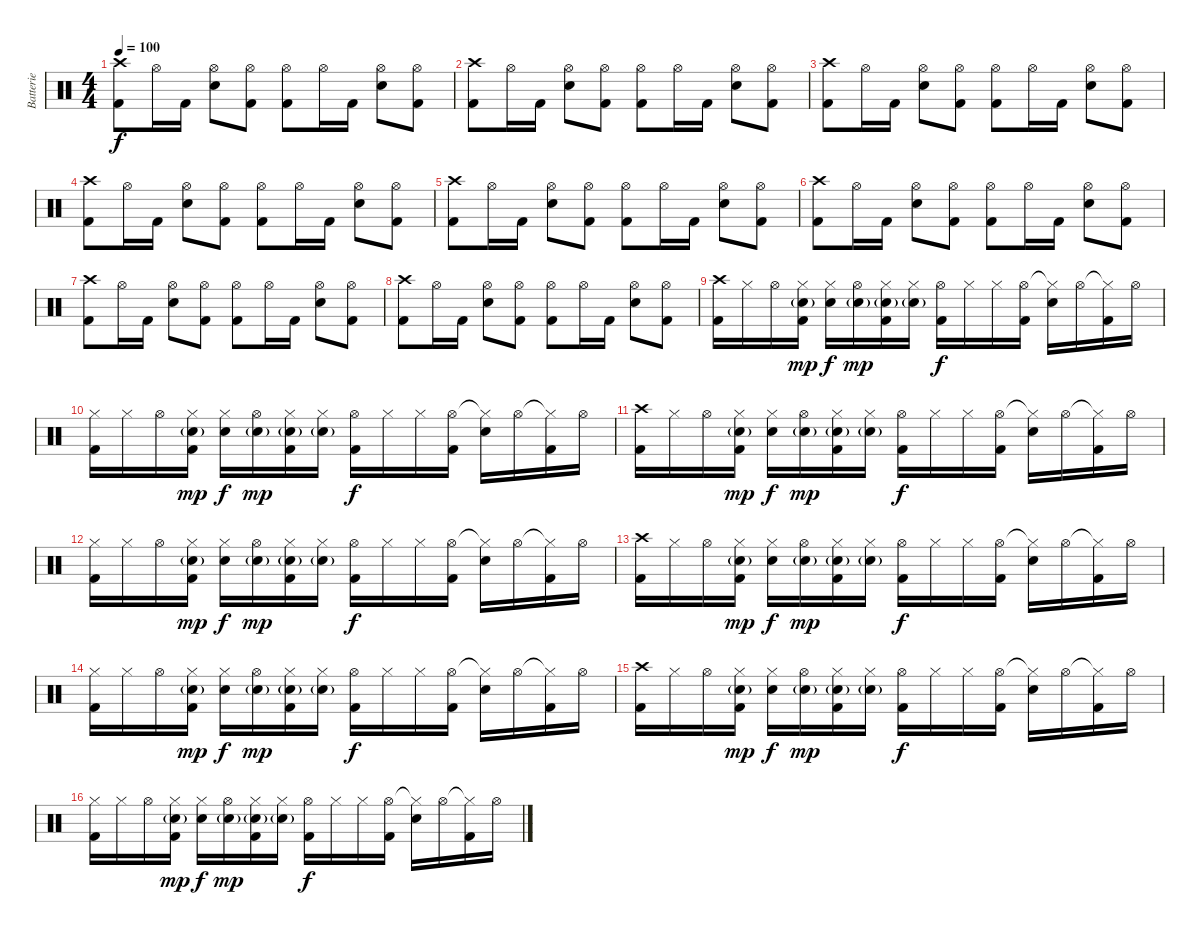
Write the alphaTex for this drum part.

\track ("Batterie" "Batterie") {instrument percussion}
\staff {score}
\articulation defaults
\ts (4 4)
\tempo 100
\clef neutral
\ks c
("Crash high (hit)" "Kick (hit) 2").8{dy f} "Hi-Hat (open)".16 "Kick (hit) 2".16 ("Hi-Hat (open)" "Snare (hit) 2").8 ("Hi-Hat (open)" "Kick (hit) 2").8 ("Hi-Hat (open)" "Kick (hit) 2").8 "Hi-Hat (open)".16 "Kick (hit) 2".16 ("Hi-Hat (open)" "Snare (hit) 2").8 ("Hi-Hat (open)" "Kick (hit) 2").8 |
("Crash high (hit)" "Kick (hit) 2").8 "Hi-Hat (open)".16 "Kick (hit) 2".16 ("Hi-Hat (open)" "Snare (hit) 2").8 ("Hi-Hat (open)" "Kick (hit) 2").8 ("Hi-Hat (open)" "Kick (hit) 2").8 "Hi-Hat (open)".16 "Kick (hit) 2".16 ("Hi-Hat (open)" "Snare (hit) 2").8 ("Hi-Hat (open)" "Kick (hit) 2").8 |
("Crash high (hit)" "Kick (hit) 2").8 "Hi-Hat (open)".16 "Kick (hit) 2".16 ("Hi-Hat (open)" "Snare (hit) 2").8 ("Hi-Hat (open)" "Kick (hit) 2").8 ("Hi-Hat (open)" "Kick (hit) 2").8 "Hi-Hat (open)".16 "Kick (hit) 2".16 ("Hi-Hat (open)" "Snare (hit) 2").8 ("Hi-Hat (open)" "Kick (hit) 2").8 |
("Crash high (hit)" "Kick (hit) 2").8 "Hi-Hat (open)".16 "Kick (hit) 2".16 ("Hi-Hat (open)" "Snare (hit) 2").8 ("Hi-Hat (open)" "Kick (hit) 2").8 ("Hi-Hat (open)" "Kick (hit) 2").8 "Hi-Hat (open)".16 "Kick (hit) 2".16 ("Hi-Hat (open)" "Snare (hit) 2").8 ("Hi-Hat (open)" "Kick (hit) 2").8 |
("Crash high (hit)" "Kick (hit) 2").8 "Hi-Hat (open)".16 "Kick (hit) 2".16 ("Hi-Hat (open)" "Snare (hit) 2").8 ("Hi-Hat (open)" "Kick (hit) 2").8 ("Hi-Hat (open)" "Kick (hit) 2").8 "Hi-Hat (open)".16 "Kick (hit) 2".16 ("Hi-Hat (open)" "Snare (hit) 2").8 ("Hi-Hat (open)" "Kick (hit) 2").8 |
("Crash high (hit)" "Kick (hit) 2").8 "Hi-Hat (open)".16 "Kick (hit) 2".16 ("Hi-Hat (open)" "Snare (hit) 2").8 ("Hi-Hat (open)" "Kick (hit) 2").8 ("Hi-Hat (open)" "Kick (hit) 2").8 "Hi-Hat (open)".16 "Kick (hit) 2".16 ("Hi-Hat (open)" "Snare (hit) 2").8 ("Hi-Hat (open)" "Kick (hit) 2").8 |
("Crash high (hit)" "Kick (hit) 2").8 "Hi-Hat (open)".16 "Kick (hit) 2".16 ("Hi-Hat (open)" "Snare (hit) 2").8 ("Hi-Hat (open)" "Kick (hit) 2").8 ("Hi-Hat (open)" "Kick (hit) 2").8 "Hi-Hat (open)".16 "Kick (hit) 2".16 ("Hi-Hat (open)" "Snare (hit) 2").8 ("Hi-Hat (open)" "Kick (hit) 2").8 |
("Crash high (hit)" "Kick (hit) 2").8 "Hi-Hat (open)".16 "Kick (hit) 2".16 ("Hi-Hat (open)" "Snare (hit) 2").8 ("Hi-Hat (open)" "Kick (hit) 2").8 ("Hi-Hat (open)" "Kick (hit) 2").8 "Hi-Hat (open)".16 "Kick (hit) 2".16 ("Hi-Hat (open)" "Snare (hit) 2").8 ("Hi-Hat (open)" "Kick (hit) 2").8 |
("Crash high (hit)" "Kick (hit) 2").16 "Hi-Hat (closed)".16 "Hi-Hat (open)".16 ("Hi-Hat (closed)" "Snare (hit) 2"{g} "Kick (hit) 2").16{dy mp} ("Hi-Hat (closed)" "Snare (hit) 2").16{dy f} ("Hi-Hat (open)" "Snare (hit) 2"{g}).16{dy mp} ("Hi-Hat (closed)" "Snare (hit) 2"{g} "Kick (hit) 2").16 ("Hi-Hat (closed)" "Snare (hit) 2"{g}).16 ("Hi-Hat (open)" "Kick (hit) 2").16{dy f} "Hi-Hat (closed)".16 "Hi-Hat (closed)".16 ("Hi-Hat (open)" "Kick (hit) 2").16 ("Hi-Hat (closed)"{t} "Snare (hit) 2").16 "Hi-Hat (open)".16 ("Hi-Hat (closed)"{t} "Kick (hit) 2").16 "Hi-Hat (open)".16 |
("Hi-Hat (closed)" "Kick (hit) 2").16 "Hi-Hat (closed)".16 "Hi-Hat (open)".16 ("Hi-Hat (closed)" "Snare (hit) 2"{g} "Kick (hit) 2").16{dy mp} ("Hi-Hat (closed)" "Snare (hit) 2").16{dy f} ("Hi-Hat (open)" "Snare (hit) 2"{g}).16{dy mp} ("Hi-Hat (closed)" "Snare (hit) 2"{g} "Kick (hit) 2").16 ("Hi-Hat (closed)" "Snare (hit) 2"{g}).16 ("Hi-Hat (open)" "Kick (hit) 2").16{dy f} "Hi-Hat (closed)".16 "Hi-Hat (closed)".16 ("Hi-Hat (open)" "Kick (hit) 2").16 ("Hi-Hat (closed)"{t} "Snare (hit) 2").16 "Hi-Hat (open)".16 ("Hi-Hat (closed)"{t} "Kick (hit) 2").16 "Hi-Hat (open)".16 |
("Crash high (hit)" "Kick (hit) 2").16 "Hi-Hat (closed)".16 "Hi-Hat (open)".16 ("Hi-Hat (closed)" "Snare (hit) 2"{g} "Kick (hit) 2").16{dy mp} ("Hi-Hat (closed)" "Snare (hit) 2").16{dy f} ("Hi-Hat (open)" "Snare (hit) 2"{g}).16{dy mp} ("Hi-Hat (closed)" "Snare (hit) 2"{g} "Kick (hit) 2").16 ("Hi-Hat (closed)" "Snare (hit) 2"{g}).16 ("Hi-Hat (open)" "Kick (hit) 2").16{dy f} "Hi-Hat (closed)".16 "Hi-Hat (closed)".16 ("Hi-Hat (open)" "Kick (hit) 2").16 ("Hi-Hat (closed)"{t} "Snare (hit) 2").16 "Hi-Hat (open)".16 ("Hi-Hat (closed)"{t} "Kick (hit) 2").16 "Hi-Hat (open)".16 |
("Hi-Hat (closed)" "Kick (hit) 2").16 "Hi-Hat (closed)".16 "Hi-Hat (open)".16 ("Hi-Hat (closed)" "Snare (hit) 2"{g} "Kick (hit) 2").16{dy mp} ("Hi-Hat (closed)" "Snare (hit) 2").16{dy f} ("Hi-Hat (open)" "Snare (hit) 2"{g}).16{dy mp} ("Hi-Hat (closed)" "Snare (hit) 2"{g} "Kick (hit) 2").16 ("Hi-Hat (closed)" "Snare (hit) 2"{g}).16 ("Hi-Hat (open)" "Kick (hit) 2").16{dy f} "Hi-Hat (closed)".16 "Hi-Hat (closed)".16 ("Hi-Hat (open)" "Kick (hit) 2").16 ("Hi-Hat (closed)"{t} "Snare (hit) 2").16 "Hi-Hat (open)".16 ("Hi-Hat (closed)"{t} "Kick (hit) 2").16 "Hi-Hat (open)".16 |
("Crash high (hit)" "Kick (hit) 2").16 "Hi-Hat (closed)".16 "Hi-Hat (open)".16 ("Hi-Hat (closed)" "Snare (hit) 2"{g} "Kick (hit) 2").16{dy mp} ("Hi-Hat (closed)" "Snare (hit) 2").16{dy f} ("Hi-Hat (open)" "Snare (hit) 2"{g}).16{dy mp} ("Hi-Hat (closed)" "Snare (hit) 2"{g} "Kick (hit) 2").16 ("Hi-Hat (closed)" "Snare (hit) 2"{g}).16 ("Hi-Hat (open)" "Kick (hit) 2").16{dy f} "Hi-Hat (closed)".16 "Hi-Hat (closed)".16 ("Hi-Hat (open)" "Kick (hit) 2").16 ("Hi-Hat (closed)"{t} "Snare (hit) 2").16 "Hi-Hat (open)".16 ("Hi-Hat (closed)"{t} "Kick (hit) 2").16 "Hi-Hat (open)".16 |
("Hi-Hat (closed)" "Kick (hit) 2").16 "Hi-Hat (closed)".16 "Hi-Hat (open)".16 ("Hi-Hat (closed)" "Snare (hit) 2"{g} "Kick (hit) 2").16{dy mp} ("Hi-Hat (closed)" "Snare (hit) 2").16{dy f} ("Hi-Hat (open)" "Snare (hit) 2"{g}).16{dy mp} ("Hi-Hat (closed)" "Snare (hit) 2"{g} "Kick (hit) 2").16 ("Hi-Hat (closed)" "Snare (hit) 2"{g}).16 ("Hi-Hat (open)" "Kick (hit) 2").16{dy f} "Hi-Hat (closed)".16 "Hi-Hat (closed)".16 ("Hi-Hat (open)" "Kick (hit) 2").16 ("Hi-Hat (closed)"{t} "Snare (hit) 2").16 "Hi-Hat (open)".16 ("Hi-Hat (closed)"{t} "Kick (hit) 2").16 "Hi-Hat (open)".16 |
("Crash high (hit)" "Kick (hit) 2").16 "Hi-Hat (closed)".16 "Hi-Hat (open)".16 ("Hi-Hat (closed)" "Snare (hit) 2"{g} "Kick (hit) 2").16{dy mp} ("Hi-Hat (closed)" "Snare (hit) 2").16{dy f} ("Hi-Hat (open)" "Snare (hit) 2"{g}).16{dy mp} ("Hi-Hat (closed)" "Snare (hit) 2"{g} "Kick (hit) 2").16 ("Hi-Hat (closed)" "Snare (hit) 2"{g}).16 ("Hi-Hat (open)" "Kick (hit) 2").16{dy f} "Hi-Hat (closed)".16 "Hi-Hat (closed)".16 ("Hi-Hat (open)" "Kick (hit) 2").16 ("Hi-Hat (closed)"{t} "Snare (hit) 2").16 "Hi-Hat (open)".16 ("Hi-Hat (closed)"{t} "Kick (hit) 2").16 "Hi-Hat (open)".16 |
("Hi-Hat (closed)" "Kick (hit) 2").16 "Hi-Hat (closed)".16 "Hi-Hat (open)".16 ("Hi-Hat (closed)" "Snare (hit) 2"{g} "Kick (hit) 2").16{dy mp} ("Hi-Hat (closed)" "Snare (hit) 2").16{dy f} ("Hi-Hat (open)" "Snare (hit) 2"{g}).16{dy mp} ("Hi-Hat (closed)" "Snare (hit) 2"{g} "Kick (hit) 2").16 ("Hi-Hat (closed)" "Snare (hit) 2"{g}).16 ("Hi-Hat (open)" "Kick (hit) 2").16{dy f} "Hi-Hat (closed)".16 "Hi-Hat (closed)".16 ("Hi-Hat (open)" "Kick (hit) 2").16 ("Hi-Hat (closed)"{t} "Snare (hit) 2").16 "Hi-Hat (open)".16 ("Hi-Hat (closed)"{t} "Kick (hit) 2").16 "Hi-Hat (open)".16
